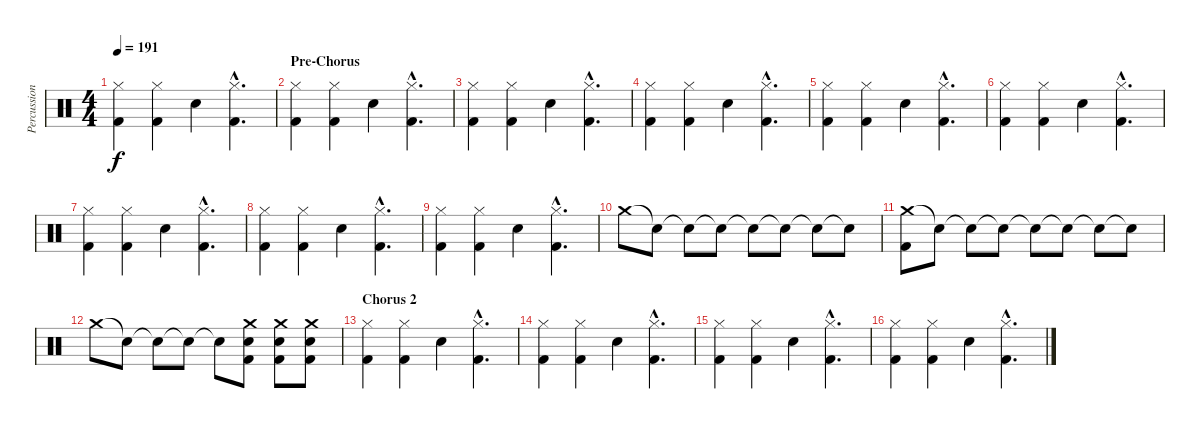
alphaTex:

\track ("Percussion" "Percussion") {instrument percussion}
\staff {score}
\articulation defaults
\ts (4 4)
\tempo 191
\clef neutral
\ks c
("Hi-Hat (closed)" "Kick (hit) 2").4{dy f} ("Hi-Hat (closed)" "Kick (hit) 2").4 "Electric Snare (hit)".4 ("Hi-Hat (closed)"{hac} "Kick (hit) 2"{hac}).4{d} |
\section ("" "Pre-Chorus")
("Hi-Hat (closed)" "Kick (hit) 2").4 ("Hi-Hat (closed)" "Kick (hit) 2").4 "Electric Snare (hit)".4 ("Hi-Hat (closed)"{hac} "Kick (hit) 2"{hac}).4{d} |
("Hi-Hat (closed)" "Kick (hit) 2").4 ("Hi-Hat (closed)" "Kick (hit) 2").4 "Electric Snare (hit)".4 ("Hi-Hat (closed)"{hac} "Kick (hit) 2"{hac}).4{d} |
("Hi-Hat (closed)" "Kick (hit) 2").4 ("Hi-Hat (closed)" "Kick (hit) 2").4 "Electric Snare (hit)".4 ("Hi-Hat (closed)"{hac} "Kick (hit) 2"{hac}).4{d} |
("Hi-Hat (closed)" "Kick (hit) 2").4 ("Hi-Hat (closed)" "Kick (hit) 2").4 "Electric Snare (hit)".4 ("Hi-Hat (closed)"{hac} "Kick (hit) 2"{hac}).4{d} |
("Hi-Hat (closed)" "Kick (hit) 2").4 ("Hi-Hat (closed)" "Kick (hit) 2").4 "Electric Snare (hit)".4 ("Hi-Hat (closed)"{hac} "Kick (hit) 2"{hac}).4{d} |
("Hi-Hat (closed)" "Kick (hit) 2").4 ("Hi-Hat (closed)" "Kick (hit) 2").4 "Electric Snare (hit)".4 ("Hi-Hat (closed)"{hac} "Kick (hit) 2"{hac}).4{d} |
("Hi-Hat (closed)" "Kick (hit) 2").4 ("Hi-Hat (closed)" "Kick (hit) 2").4 "Electric Snare (hit)".4 ("Hi-Hat (closed)"{hac} "Kick (hit) 2"{hac}).4{d} |
("Hi-Hat (closed)" "Kick (hit) 2").4 ("Hi-Hat (closed)" "Kick (hit) 2").4 "Electric Snare (hit)".4 ("Hi-Hat (closed)"{hac} "Kick (hit) 2"{hac}).4{d} |
"Crash medium (hit)".8 "Snare (hit)"{t}.8 "Snare (hit)"{t}.8 "Snare (hit)"{t}.8 "Snare (hit)"{t}.8 "Snare (hit)"{t}.8 "Snare (hit)"{t}.8 "Snare (hit)"{t}.8 |
("Crash medium (hit)" "Kick (hit) 2").8 "Snare (hit)"{t}.8 "Snare (hit)"{t}.8 "Snare (hit)"{t}.8 "Snare (hit)"{t}.8 "Snare (hit)"{t}.8 "Snare (hit)"{t}.8 "Snare (hit)"{t}.8 |
"Crash medium (hit)".8 "Snare (hit)"{t}.8 "Snare (hit)"{t}.8 "Snare (hit)"{t}.8 "Electric Snare (hit)"{t}.8 ("Crash medium (hit)" "Electric Snare (hit)" "Kick (hit) 2").8 ("Crash medium (hit)" "Electric Snare (hit)" "Kick (hit) 2").8 ("Crash medium (hit)" "Electric Snare (hit)" "Kick (hit) 2").8 |
\section ("" "Chorus 2")
("Hi-Hat (closed)" "Kick (hit) 2").4 ("Hi-Hat (closed)" "Kick (hit) 2").4 "Electric Snare (hit)".4 ("Hi-Hat (closed)"{hac} "Kick (hit) 2"{hac}).4{d} |
("Hi-Hat (closed)" "Kick (hit) 2").4 ("Hi-Hat (closed)" "Kick (hit) 2").4 "Electric Snare (hit)".4 ("Hi-Hat (closed)"{hac} "Kick (hit) 2"{hac}).4{d} |
("Hi-Hat (closed)" "Kick (hit) 2").4 ("Hi-Hat (closed)" "Kick (hit) 2").4 "Electric Snare (hit)".4 ("Hi-Hat (closed)"{hac} "Kick (hit) 2"{hac}).4{d} |
("Hi-Hat (closed)" "Kick (hit) 2").4 ("Hi-Hat (closed)" "Kick (hit) 2").4 "Electric Snare (hit)".4 ("Hi-Hat (closed)"{hac} "Kick (hit) 2"{hac}).4{d}
